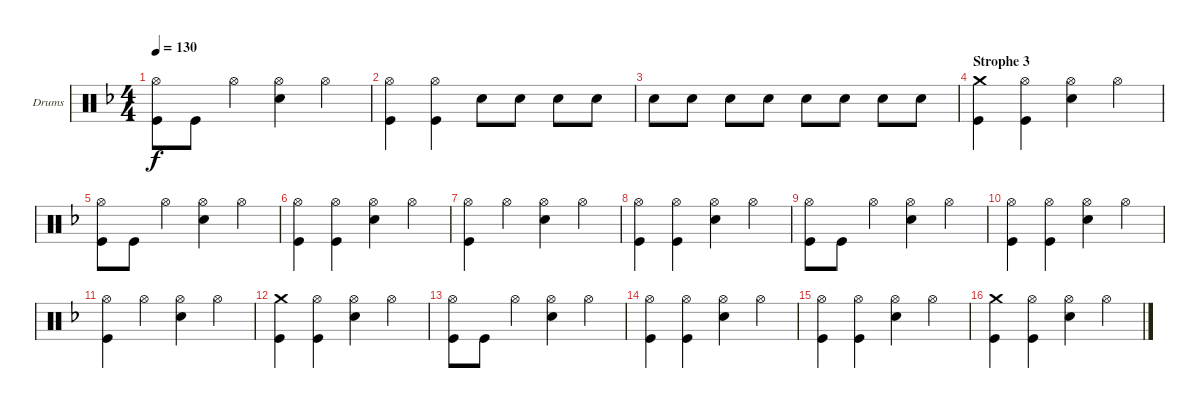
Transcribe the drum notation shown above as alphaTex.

\defaultSystemsLayout 4
\bracketExtendMode groupsimilarinstruments
\firstSystemTrackNameOrientation horizontal
\otherSystemsTrackNameOrientation horizontal
\track ("Drumkit" "Drums") {instrument percussion}
\staff {score}
\articulation defaults
\ts (4 4)
\tempo 130
\clef neutral
\ks dminor
("Kick (hit)" "Hi-Hat (open)").8{dy f} "Kick (hit)".8 "Hi-Hat (open)".4 ("Hi-Hat (open)" "Snare (hit) 2").4 "Hi-Hat (open)".4 |
("Kick (hit)" "Hi-Hat (open)").4 ("Hi-Hat (open)" "Kick (hit)").4 "Snare (hit) 2".8 "Snare (hit) 2".8 "Snare (hit) 2".8 "Snare (hit) 2".8 |
"Snare (hit) 2".8 "Snare (hit) 2".8 "Snare (hit) 2".8 "Snare (hit) 2".8 "Snare (hit) 2".8 "Snare (hit) 2".8 "Snare (hit) 2".8 "Snare (hit) 2".8 |
\section ("" "Strophe 3")
("Kick (hit)" "Crash medium (hit)").4 ("Kick (hit)" "Hi-Hat (open)").4 ("Hi-Hat (open)" "Snare (hit) 2").4 "Hi-Hat (open)".4 |
("Kick (hit)" "Hi-Hat (open)").8 "Kick (hit)".8 "Hi-Hat (open)".4 ("Hi-Hat (open)" "Snare (hit) 2").4 "Hi-Hat (open)".4 |
("Kick (hit)" "Hi-Hat (open)").4 ("Kick (hit)" "Hi-Hat (open)").4 ("Hi-Hat (open)" "Snare (hit) 2").4 "Hi-Hat (open)".4 |
("Kick (hit)" "Hi-Hat (open)").4 "Hi-Hat (open)".4 ("Hi-Hat (open)" "Snare (hit) 2").4 "Hi-Hat (open)".4 |
("Kick (hit)" "Hi-Hat (open)").4 ("Kick (hit)" "Hi-Hat (open)").4 ("Hi-Hat (open)" "Snare (hit) 2").4 "Hi-Hat (open)".4 |
("Kick (hit)" "Hi-Hat (open)").8 "Kick (hit)".8 "Hi-Hat (open)".4 ("Hi-Hat (open)" "Snare (hit) 2").4 "Hi-Hat (open)".4 |
("Kick (hit)" "Hi-Hat (open)").4 ("Kick (hit)" "Hi-Hat (open)").4 ("Hi-Hat (open)" "Snare (hit) 2").4 "Hi-Hat (open)".4 |
("Kick (hit)" "Hi-Hat (open)").4 "Hi-Hat (open)".4 ("Hi-Hat (open)" "Snare (hit) 2").4 "Hi-Hat (open)".4 |
("Kick (hit)" "Crash medium (hit)").4 ("Kick (hit)" "Hi-Hat (open)").4 ("Hi-Hat (open)" "Snare (hit) 2").4 "Hi-Hat (open)".4 |
("Kick (hit)" "Hi-Hat (open)").8 "Kick (hit)".8 "Hi-Hat (open)".4 ("Hi-Hat (open)" "Snare (hit) 2").4 "Hi-Hat (open)".4 |
("Kick (hit)" "Hi-Hat (open)").4 ("Kick (hit)" "Hi-Hat (open)").4 ("Hi-Hat (open)" "Snare (hit) 2").4 "Hi-Hat (open)".4 |
("Kick (hit)" "Hi-Hat (open)").4 ("Hi-Hat (open)" "Kick (hit)").4 ("Hi-Hat (open)" "Snare (hit) 2").4 "Hi-Hat (open)".4 |
("Kick (hit)" "Crash medium (hit)").4 ("Kick (hit)" "Hi-Hat (open)").4 ("Hi-Hat (open)" "Snare (hit) 2").4 "Hi-Hat (open)".4
